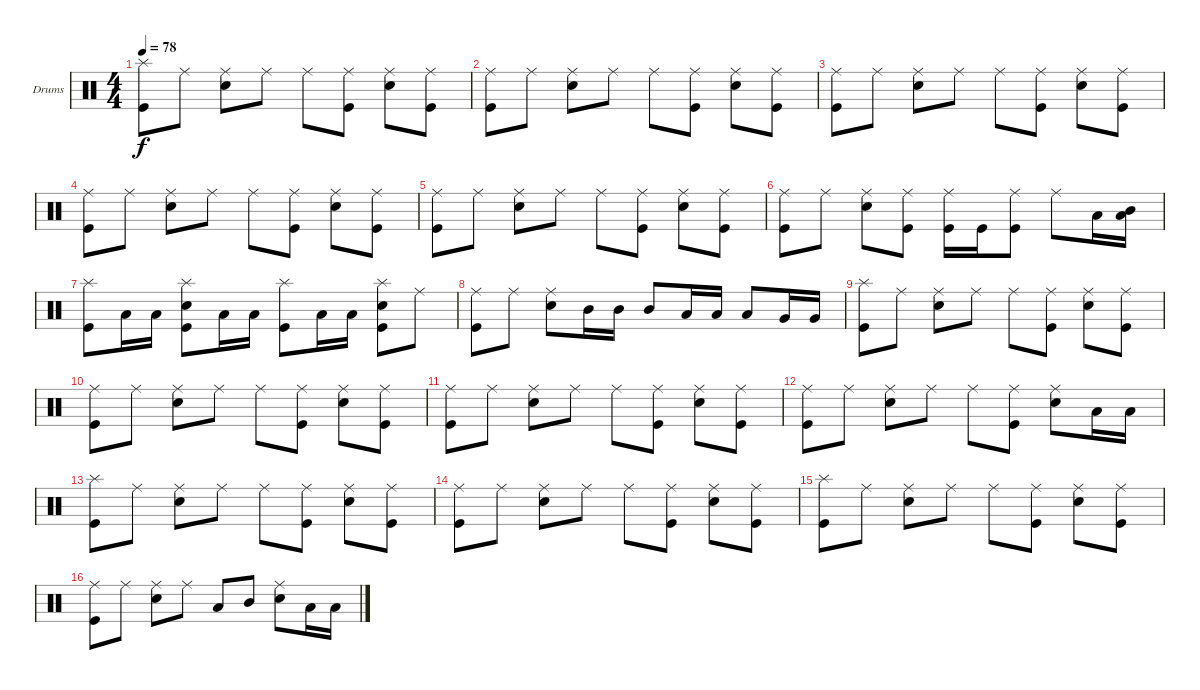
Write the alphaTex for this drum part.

\bracketExtendMode groupsimilarinstruments
\firstSystemTrackNameOrientation horizontal
\otherSystemsTrackNameOrientation horizontal
\track ("Drumkit" "Drums") {instrument percussion}
\staff {score}
\articulation defaults
\ts (4 4)
\tempo 78
\clef neutral
\ks c
("Splash (hit)" "Kick (hit)").8{dy f} "Ride (middle)".8 ("Ride (middle)" "Snare (hit) 2").8 "Ride (middle)".8 "Ride (middle)".8 ("Ride (middle)" "Kick (hit)").8 ("Ride (middle)" "Snare (hit) 2").8 ("Ride (middle)" "Kick (hit)").8 |
("Ride (middle)" "Kick (hit)").8 "Ride (middle)".8 ("Ride (middle)" "Snare (hit) 2").8 "Ride (middle)".8 "Ride (middle)".8 ("Ride (middle)" "Kick (hit)").8 ("Ride (middle)" "Snare (hit) 2").8 ("Ride (middle)" "Kick (hit)").8 |
("Ride (middle)" "Kick (hit)").8 "Ride (middle)".8 ("Ride (middle)" "Snare (hit) 2").8 "Ride (middle)".8 "Ride (middle)".8 ("Ride (middle)" "Kick (hit)").8 ("Ride (middle)" "Snare (hit) 2").8 ("Ride (middle)" "Kick (hit)").8 |
("Ride (middle)" "Kick (hit)").8 "Ride (middle)".8 ("Ride (middle)" "Snare (hit) 2").8 "Ride (middle)".8 "Ride (middle)".8 ("Ride (middle)" "Kick (hit)").8 ("Ride (middle)" "Snare (hit) 2").8 ("Ride (middle)" "Kick (hit)").8 |
("Ride (middle)" "Kick (hit)").8 "Ride (middle)".8 ("Ride (middle)" "Snare (hit) 2").8 "Ride (middle)".8 "Ride (middle)".8 ("Ride (middle)" "Kick (hit)").8 ("Ride (middle)" "Snare (hit) 2").8 ("Ride (middle)" "Kick (hit)").8 |
("Ride (middle)" "Kick (hit)").8 "Ride (middle)".8 ("Ride (middle)" "Snare (hit) 2").8 ("Ride (middle)" "Kick (hit)").8 ("Ride (middle)" "Kick (hit)").16 "Kick (hit)".16 ("Ride (middle)" "Kick (hit)").8 "Ride (middle)".8 "Low Tom (hit)".16 ("Mid Tom (hit)" "Low Tom (hit)").16 |
("Splash (hit)" "Kick (hit)").8 "Low Tom (hit)".16 "Low Tom (hit)".16 ("Splash (hit)" "Snare (hit) 2" "Kick (hit)").8 "Low Tom (hit)".16 "Low Tom (hit)".16 ("Splash (hit)" "Kick (hit)").8 "Low Tom (hit)".16 "Low Tom (hit)".16 ("Splash (hit)" "Snare (hit) 2" "Kick (hit)").8 "Ride (middle)".8 |
("Ride (middle)" "Kick (hit)").8 "Ride (middle)".8 ("Ride (middle)" "Snare (hit) 2").8 "Mid Tom (hit)".16 "Mid Tom (hit)".16 "Mid Tom (hit)".8 "Low Tom (hit)".16 "Low Tom (hit)".16 "Low Tom (hit)".8 "Very Low Tom (hit)".16 "Very Low Tom (hit)".16 |
("Splash (hit)" "Kick (hit)").8 "Ride (middle)".8 ("Ride (middle)" "Snare (hit) 2").8 "Ride (middle)".8 "Ride (middle)".8 ("Ride (middle)" "Kick (hit)").8 ("Ride (middle)" "Snare (hit) 2").8 ("Ride (middle)" "Kick (hit)").8 |
("Ride (middle)" "Kick (hit)").8 "Ride (middle)".8 ("Ride (middle)" "Snare (hit) 2").8 "Ride (middle)".8 "Ride (middle)".8 ("Ride (middle)" "Kick (hit)").8 ("Ride (middle)" "Snare (hit) 2").8 ("Ride (middle)" "Kick (hit)").8 |
("Ride (middle)" "Kick (hit)").8 "Ride (middle)".8 ("Ride (middle)" "Snare (hit) 2").8 "Ride (middle)".8 "Ride (middle)".8 ("Ride (middle)" "Kick (hit)").8 ("Ride (middle)" "Snare (hit) 2").8 ("Ride (middle)" "Kick (hit)").8 |
("Ride (middle)" "Kick (hit)").8 "Ride (middle)".8 ("Ride (middle)" "Snare (hit) 2").8 "Ride (middle)".8 "Ride (middle)".8 ("Ride (middle)" "Kick (hit)").8 ("Ride (middle)" "Snare (hit) 2").8 "Low Tom (hit)".16 "Low Tom (hit)".16 |
("Splash (hit)" "Kick (hit)").8 "Ride (middle)".8 ("Ride (middle)" "Snare (hit) 2").8 "Ride (middle)".8 "Ride (middle)".8 ("Ride (middle)" "Kick (hit)").8 ("Ride (middle)" "Snare (hit) 2").8 ("Ride (middle)" "Kick (hit)").8 |
("Ride (middle)" "Kick (hit)").8 "Ride (middle)".8 ("Ride (middle)" "Snare (hit) 2").8 "Ride (middle)".8 "Ride (middle)".8 ("Ride (middle)" "Kick (hit)").8 ("Ride (middle)" "Snare (hit) 2").8 ("Ride (middle)" "Kick (hit)").8 |
("Splash (hit)" "Kick (hit)").8 "Ride (middle)".8 ("Ride (middle)" "Snare (hit) 2").8 "Ride (middle)".8 "Ride (middle)".8 ("Ride (middle)" "Kick (hit)").8 ("Ride (middle)" "Snare (hit) 2").8 ("Ride (middle)" "Kick (hit)").8 |
("Ride (middle)" "Kick (hit)").8 "Ride (middle)".8 ("Ride (middle)" "Snare (hit) 2").8 "Ride (middle)".8 "Low Tom (hit)".8 "Mid Tom (hit)".8 ("Ride (middle)" "Snare (hit) 2").8 "Low Tom (hit)".16 "Low Tom (hit)".16
